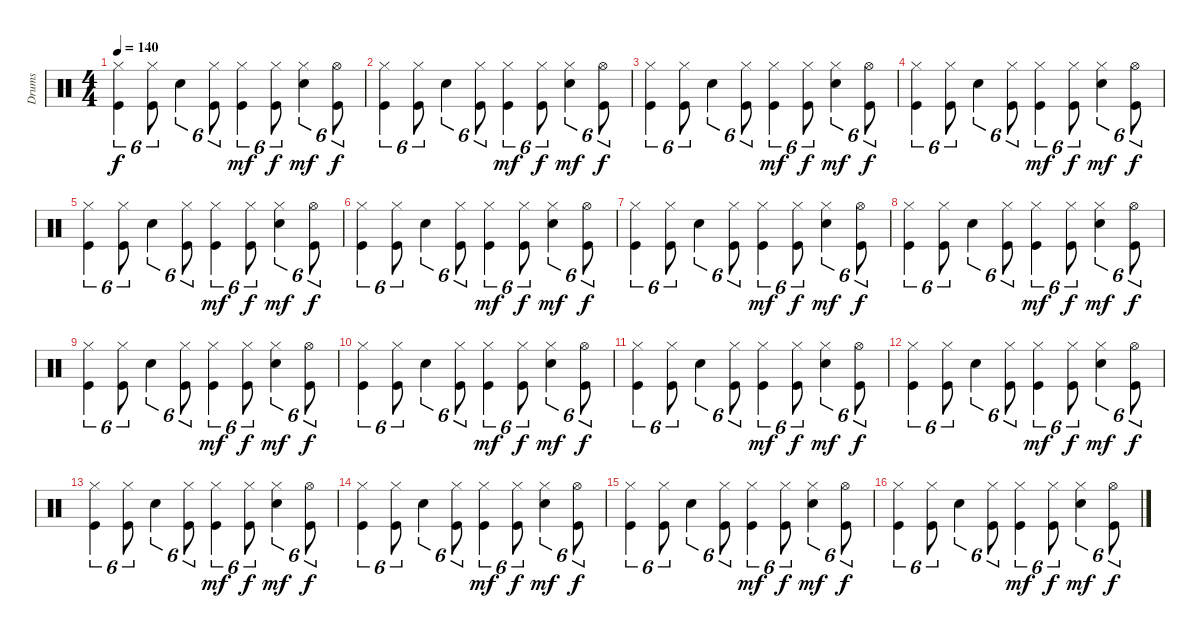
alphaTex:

\track ("Drums" "Drums") {instrument percussion}
\staff {score}
\articulation defaults
\ts (4 4)
\tempo 140
\clef neutral
\ks c
("Kick (hit)" "Hi-Hat (closed)").4{tu (6 4) dy f} ("Kick (hit)" "Hi-Hat (closed)").8{tu (6 4)} "Electric Snare (hit)".4{tu (6 4)} ("Kick (hit)" "Hi-Hat (closed)").8{tu (6 4)} ("Kick (hit)" "Hi-Hat (closed)").4{tu (6 4) dy mf} ("Kick (hit)" "Hi-Hat (closed)").8{tu (6 4) dy f} ("Electric Snare (hit)" "Hi-Hat (closed)").4{tu (6 4) dy mf} ("Kick (hit)" "Hi-Hat (open)").8{tu (6 4) dy f} |
("Kick (hit)" "Hi-Hat (closed)").4{tu (6 4)} ("Kick (hit)" "Hi-Hat (closed)").8{tu (6 4)} "Electric Snare (hit)".4{tu (6 4)} ("Kick (hit)" "Hi-Hat (closed)").8{tu (6 4)} ("Kick (hit)" "Hi-Hat (closed)").4{tu (6 4) dy mf} ("Kick (hit)" "Hi-Hat (closed)").8{tu (6 4) dy f} ("Electric Snare (hit)" "Hi-Hat (closed)").4{tu (6 4) dy mf} ("Kick (hit)" "Hi-Hat (open)").8{tu (6 4) dy f} |
("Kick (hit)" "Hi-Hat (closed)").4{tu (6 4)} ("Kick (hit)" "Hi-Hat (closed)").8{tu (6 4)} "Electric Snare (hit)".4{tu (6 4)} ("Kick (hit)" "Hi-Hat (closed)").8{tu (6 4)} ("Kick (hit)" "Hi-Hat (closed)").4{tu (6 4) dy mf} ("Kick (hit)" "Hi-Hat (closed)").8{tu (6 4) dy f} ("Electric Snare (hit)" "Hi-Hat (closed)").4{tu (6 4) dy mf} ("Kick (hit)" "Hi-Hat (open)").8{tu (6 4) dy f} |
("Kick (hit)" "Hi-Hat (closed)").4{tu (6 4)} ("Kick (hit)" "Hi-Hat (closed)").8{tu (6 4)} "Electric Snare (hit)".4{tu (6 4)} ("Kick (hit)" "Hi-Hat (closed)").8{tu (6 4)} ("Kick (hit)" "Hi-Hat (closed)").4{tu (6 4) dy mf} ("Kick (hit)" "Hi-Hat (closed)").8{tu (6 4) dy f} ("Electric Snare (hit)" "Hi-Hat (closed)").4{tu (6 4) dy mf} ("Kick (hit)" "Hi-Hat (open)").8{tu (6 4) dy f} |
("Kick (hit)" "Hi-Hat (closed)").4{tu (6 4)} ("Kick (hit)" "Hi-Hat (closed)").8{tu (6 4)} "Electric Snare (hit)".4{tu (6 4)} ("Kick (hit)" "Hi-Hat (closed)").8{tu (6 4)} ("Kick (hit)" "Hi-Hat (closed)").4{tu (6 4) dy mf} ("Kick (hit)" "Hi-Hat (closed)").8{tu (6 4) dy f} ("Electric Snare (hit)" "Hi-Hat (closed)").4{tu (6 4) dy mf} ("Kick (hit)" "Hi-Hat (open)").8{tu (6 4) dy f} |
("Kick (hit)" "Hi-Hat (closed)").4{tu (6 4)} ("Kick (hit)" "Hi-Hat (closed)").8{tu (6 4)} "Electric Snare (hit)".4{tu (6 4)} ("Kick (hit)" "Hi-Hat (closed)").8{tu (6 4)} ("Kick (hit)" "Hi-Hat (closed)").4{tu (6 4) dy mf} ("Kick (hit)" "Hi-Hat (closed)").8{tu (6 4) dy f} ("Electric Snare (hit)" "Hi-Hat (closed)").4{tu (6 4) dy mf} ("Kick (hit)" "Hi-Hat (open)").8{tu (6 4) dy f} |
("Kick (hit)" "Hi-Hat (closed)").4{tu (6 4)} ("Kick (hit)" "Hi-Hat (closed)").8{tu (6 4)} "Electric Snare (hit)".4{tu (6 4)} ("Kick (hit)" "Hi-Hat (closed)").8{tu (6 4)} ("Kick (hit)" "Hi-Hat (closed)").4{tu (6 4) dy mf} ("Kick (hit)" "Hi-Hat (closed)").8{tu (6 4) dy f} ("Electric Snare (hit)" "Hi-Hat (closed)").4{tu (6 4) dy mf} ("Kick (hit)" "Hi-Hat (open)").8{tu (6 4) dy f} |
("Kick (hit)" "Hi-Hat (closed)").4{tu (6 4)} ("Kick (hit)" "Hi-Hat (closed)").8{tu (6 4)} "Electric Snare (hit)".4{tu (6 4)} ("Kick (hit)" "Hi-Hat (closed)").8{tu (6 4)} ("Kick (hit)" "Hi-Hat (closed)").4{tu (6 4) dy mf} ("Kick (hit)" "Hi-Hat (closed)").8{tu (6 4) dy f} ("Electric Snare (hit)" "Hi-Hat (closed)").4{tu (6 4) dy mf} ("Kick (hit)" "Hi-Hat (open)").8{tu (6 4) dy f} |
("Kick (hit)" "Hi-Hat (closed)").4{tu (6 4)} ("Kick (hit)" "Hi-Hat (closed)").8{tu (6 4)} "Electric Snare (hit)".4{tu (6 4)} ("Kick (hit)" "Hi-Hat (closed)").8{tu (6 4)} ("Kick (hit)" "Hi-Hat (closed)").4{tu (6 4) dy mf} ("Kick (hit)" "Hi-Hat (closed)").8{tu (6 4) dy f} ("Electric Snare (hit)" "Hi-Hat (closed)").4{tu (6 4) dy mf} ("Kick (hit)" "Hi-Hat (open)").8{tu (6 4) dy f} |
("Kick (hit)" "Hi-Hat (closed)").4{tu (6 4)} ("Kick (hit)" "Hi-Hat (closed)").8{tu (6 4)} "Electric Snare (hit)".4{tu (6 4)} ("Kick (hit)" "Hi-Hat (closed)").8{tu (6 4)} ("Kick (hit)" "Hi-Hat (closed)").4{tu (6 4) dy mf} ("Kick (hit)" "Hi-Hat (closed)").8{tu (6 4) dy f} ("Electric Snare (hit)" "Hi-Hat (closed)").4{tu (6 4) dy mf} ("Kick (hit)" "Hi-Hat (open)").8{tu (6 4) dy f} |
("Kick (hit)" "Hi-Hat (closed)").4{tu (6 4)} ("Kick (hit)" "Hi-Hat (closed)").8{tu (6 4)} "Electric Snare (hit)".4{tu (6 4)} ("Kick (hit)" "Hi-Hat (closed)").8{tu (6 4)} ("Kick (hit)" "Hi-Hat (closed)").4{tu (6 4) dy mf} ("Kick (hit)" "Hi-Hat (closed)").8{tu (6 4) dy f} ("Electric Snare (hit)" "Hi-Hat (closed)").4{tu (6 4) dy mf} ("Kick (hit)" "Hi-Hat (open)").8{tu (6 4) dy f} |
("Kick (hit)" "Hi-Hat (closed)").4{tu (6 4)} ("Kick (hit)" "Hi-Hat (closed)").8{tu (6 4)} "Electric Snare (hit)".4{tu (6 4)} ("Kick (hit)" "Hi-Hat (closed)").8{tu (6 4)} ("Kick (hit)" "Hi-Hat (closed)").4{tu (6 4) dy mf} ("Kick (hit)" "Hi-Hat (closed)").8{tu (6 4) dy f} ("Electric Snare (hit)" "Hi-Hat (closed)").4{tu (6 4) dy mf} ("Kick (hit)" "Hi-Hat (open)").8{tu (6 4) dy f} |
("Kick (hit)" "Hi-Hat (closed)").4{tu (6 4)} ("Kick (hit)" "Hi-Hat (closed)").8{tu (6 4)} "Electric Snare (hit)".4{tu (6 4)} ("Kick (hit)" "Hi-Hat (closed)").8{tu (6 4)} ("Kick (hit)" "Hi-Hat (closed)").4{tu (6 4) dy mf} ("Kick (hit)" "Hi-Hat (closed)").8{tu (6 4) dy f} ("Electric Snare (hit)" "Hi-Hat (closed)").4{tu (6 4) dy mf} ("Kick (hit)" "Hi-Hat (open)").8{tu (6 4) dy f} |
("Kick (hit)" "Hi-Hat (closed)").4{tu (6 4)} ("Kick (hit)" "Hi-Hat (closed)").8{tu (6 4)} "Electric Snare (hit)".4{tu (6 4)} ("Kick (hit)" "Hi-Hat (closed)").8{tu (6 4)} ("Kick (hit)" "Hi-Hat (closed)").4{tu (6 4) dy mf} ("Kick (hit)" "Hi-Hat (closed)").8{tu (6 4) dy f} ("Electric Snare (hit)" "Hi-Hat (closed)").4{tu (6 4) dy mf} ("Kick (hit)" "Hi-Hat (open)").8{tu (6 4) dy f} |
("Kick (hit)" "Hi-Hat (closed)").4{tu (6 4)} ("Kick (hit)" "Hi-Hat (closed)").8{tu (6 4)} "Electric Snare (hit)".4{tu (6 4)} ("Kick (hit)" "Hi-Hat (closed)").8{tu (6 4)} ("Kick (hit)" "Hi-Hat (closed)").4{tu (6 4) dy mf} ("Kick (hit)" "Hi-Hat (closed)").8{tu (6 4) dy f} ("Electric Snare (hit)" "Hi-Hat (closed)").4{tu (6 4) dy mf} ("Kick (hit)" "Hi-Hat (open)").8{tu (6 4) dy f} |
("Kick (hit)" "Hi-Hat (closed)").4{tu (6 4)} ("Kick (hit)" "Hi-Hat (closed)").8{tu (6 4)} "Electric Snare (hit)".4{tu (6 4)} ("Kick (hit)" "Hi-Hat (closed)").8{tu (6 4)} ("Kick (hit)" "Hi-Hat (closed)").4{tu (6 4) dy mf} ("Kick (hit)" "Hi-Hat (closed)").8{tu (6 4) dy f} ("Electric Snare (hit)" "Hi-Hat (closed)").4{tu (6 4) dy mf} ("Kick (hit)" "Hi-Hat (open)").8{tu (6 4) dy f}
